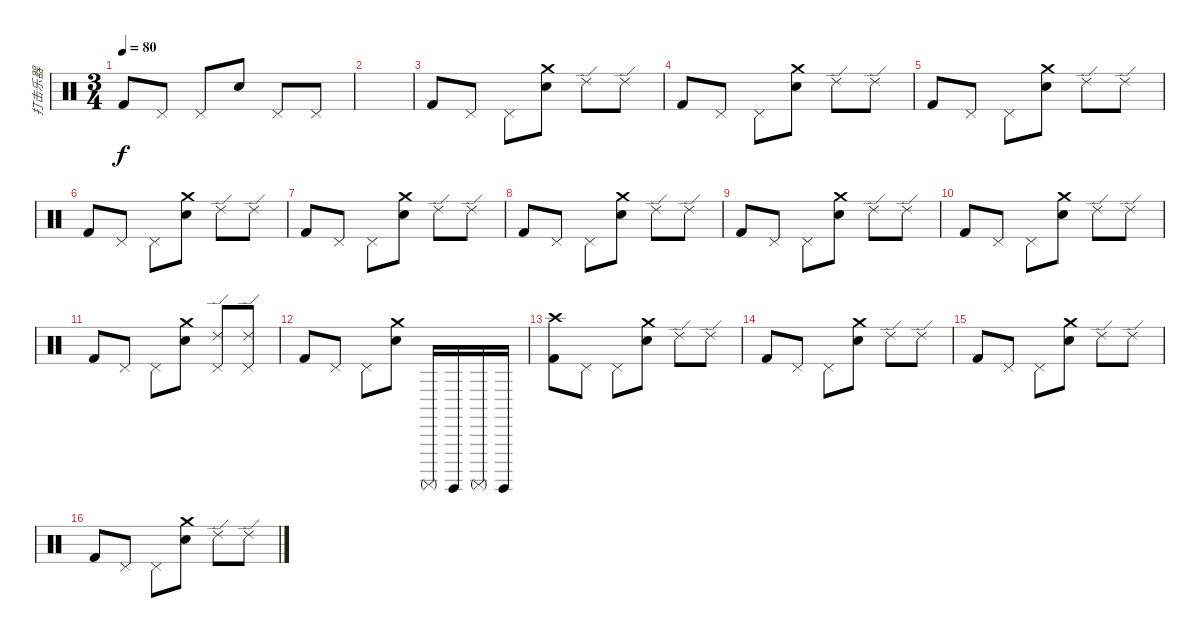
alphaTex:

\track ("打击乐器" "打击乐器") {instrument percussion}
\staff {score}
\articulation defaults
\ts (3 4)
\tempo 80
\clef neutral
\ks c "Kick (hit) 2".8{dy f volume 12} "Pedal Hi-Hat (hit)".8{volume 6} "Pedal Hi-Hat (hit)".8{volume 7} "Snare (hit) 2".8{volume 12} "Pedal Hi-Hat (hit)".8{volume 7} "Pedal Hi-Hat (hit)".8{volume 7}
|
|
"Kick (hit) 2".8{volume 12} "Pedal Hi-Hat (hit)".8 "Pedal Hi-Hat (hit)".8 ("Crash medium (hit)" "Snare (hit) 2").8{volume 12} "Ride (edge) 2".8 "Ride (edge) 2".8 |
"Kick (hit) 2".8 "Pedal Hi-Hat (hit)".8 "Pedal Hi-Hat (hit)".8 ("Crash medium (hit)" "Snare (hit) 2").8 "Ride (edge) 2".8 "Ride (edge) 2".8 |
"Kick (hit) 2".8 "Pedal Hi-Hat (hit)".8 "Pedal Hi-Hat (hit)".8 ("Crash medium (hit)" "Snare (hit) 2").8 "Ride (edge) 2".8 "Ride (edge) 2".8 |
"Kick (hit) 2".8 "Pedal Hi-Hat (hit)".8 "Pedal Hi-Hat (hit)".8 ("Crash medium (hit)" "Snare (hit) 2").8 "Ride (edge) 2".8 "Ride (edge) 2".8 |
"Kick (hit) 2".8 "Pedal Hi-Hat (hit)".8 "Pedal Hi-Hat (hit)".8 ("Crash medium (hit)" "Snare (hit) 2").8 "Ride (edge) 2".8 "Ride (edge) 2".8 |
"Kick (hit) 2".8 "Pedal Hi-Hat (hit)".8 "Pedal Hi-Hat (hit)".8 ("Crash medium (hit)" "Snare (hit) 2").8 "Ride (edge) 2".8 "Ride (edge) 2".8 |
"Kick (hit) 2".8 "Pedal Hi-Hat (hit)".8 "Pedal Hi-Hat (hit)".8 ("Crash medium (hit)" "Snare (hit) 2").8 "Ride (edge) 2".8 "Ride (edge) 2".8 |
"Kick (hit) 2".8 "Pedal Hi-Hat (hit)".8 "Pedal Hi-Hat (hit)".8 ("Crash medium (hit)" "Snare (hit) 2").8 "Ride (edge) 2".8 "Ride (edge) 2".8 |
"Kick (hit) 2".8 "Pedal Hi-Hat (hit)".8 "Pedal Hi-Hat (hit)".8 ("Crash medium (hit)" "Snare (hit) 2").8 ("Pedal Hi-Hat (hit)" "Ride (edge) 2").8 ("Pedal Hi-Hat (hit)" "Ride (edge) 2").8 |
"Kick (hit) 2".8 "Pedal Hi-Hat (hit)".8 "Pedal Hi-Hat (hit)".8 ("Crash medium (hit)" "Snare (hit) 2").8 "Surdo (mute)".16 "Surdo (hit)".16 "Surdo (mute)".16 "Surdo (hit)".16 |
("Crash high (hit)" "Kick (hit) 2").8 "Pedal Hi-Hat (hit)".8 "Pedal Hi-Hat (hit)".8 ("Crash medium (hit)" "Snare (hit) 2").8 "Ride (edge) 2".8 "Ride (edge) 2".8 |
"Kick (hit) 2".8 "Pedal Hi-Hat (hit)".8 "Pedal Hi-Hat (hit)".8 ("Crash medium (hit)" "Snare (hit) 2").8 "Ride (edge) 2".8 "Ride (edge) 2".8 |
"Kick (hit) 2".8 "Pedal Hi-Hat (hit)".8 "Pedal Hi-Hat (hit)".8 ("Crash medium (hit)" "Snare (hit) 2").8 "Ride (edge) 2".8 "Ride (edge) 2".8 |
"Kick (hit) 2".8 "Pedal Hi-Hat (hit)".8 "Pedal Hi-Hat (hit)".8 ("Crash medium (hit)" "Snare (hit) 2").8 "Ride (edge) 2".8 "Ride (edge) 2".8
